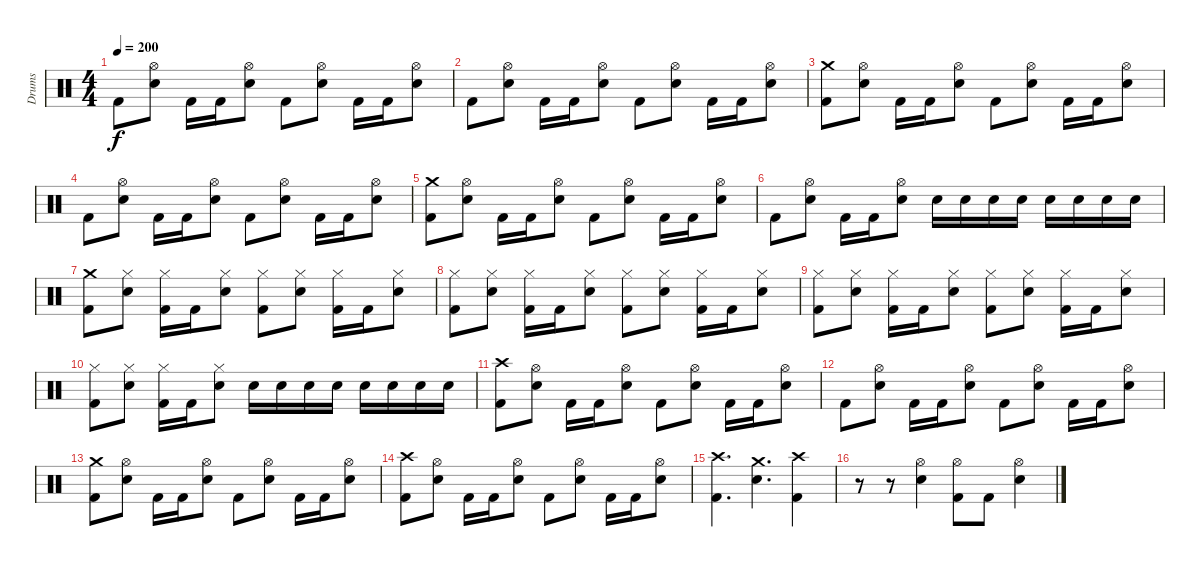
\track ("Drums" "Drums") {instrument percussion}
\staff {score}
\articulation defaults
\ts (4 4)
\tempo 200
\clef neutral
\ks c "Kick (hit) 2".8{dy f}
("Hi-Hat (open)" "Electric Snare (hit)").8 "Kick (hit) 2".16 "Kick (hit) 2".16 ("Hi-Hat (open)" "Electric Snare (hit)").8 "Kick (hit) 2".8 ("Hi-Hat (open)" "Electric Snare (hit)").8 "Kick (hit) 2".16 "Kick (hit) 2".16 ("Hi-Hat (open)" "Electric Snare (hit)").8 |
"Kick (hit) 2".8 ("Hi-Hat (open)" "Electric Snare (hit)").8 "Kick (hit) 2".16 "Kick (hit) 2".16 ("Hi-Hat (open)" "Electric Snare (hit)").8 "Kick (hit) 2".8 ("Hi-Hat (open)" "Electric Snare (hit)").8 "Kick (hit) 2".16 "Kick (hit) 2".16 ("Hi-Hat (open)" "Electric Snare (hit)").8 |
("Crash medium (hit)" "Kick (hit) 2").8 ("Hi-Hat (open)" "Electric Snare (hit)").8 "Kick (hit) 2".16 "Kick (hit) 2".16 ("Hi-Hat (open)" "Electric Snare (hit)").8 "Kick (hit) 2".8 ("Hi-Hat (open)" "Electric Snare (hit)").8 "Kick (hit) 2".16 "Kick (hit) 2".16 ("Hi-Hat (open)" "Electric Snare (hit)").8 |
"Kick (hit) 2".8 ("Hi-Hat (open)" "Electric Snare (hit)").8 "Kick (hit) 2".16 "Kick (hit) 2".16 ("Hi-Hat (open)" "Electric Snare (hit)").8 "Kick (hit) 2".8 ("Hi-Hat (open)" "Electric Snare (hit)").8 "Kick (hit) 2".16 "Kick (hit) 2".16 ("Hi-Hat (open)" "Electric Snare (hit)").8 |
("Crash medium (hit)" "Kick (hit) 2").8 ("Hi-Hat (open)" "Electric Snare (hit)").8 "Kick (hit) 2".16 "Kick (hit) 2".16 ("Hi-Hat (open)" "Electric Snare (hit)").8 "Kick (hit) 2".8 ("Hi-Hat (open)" "Electric Snare (hit)").8 "Kick (hit) 2".16 "Kick (hit) 2".16 ("Hi-Hat (open)" "Electric Snare (hit)").8 |
"Kick (hit) 2".8 ("Hi-Hat (open)" "Electric Snare (hit)").8 "Kick (hit) 2".16 "Kick (hit) 2".16 ("Hi-Hat (open)" "Electric Snare (hit)").8 "Electric Snare (hit)".16 "Electric Snare (hit)".16 "Electric Snare (hit)".16 "Electric Snare (hit)".16 "Electric Snare (hit)".16 "Electric Snare (hit)".16 "Electric Snare (hit)".16 "Electric Snare (hit)".16 |
("Crash medium (hit)" "Kick (hit) 2").8 ("Hi-Hat (closed)" "Electric Snare (hit)").8 ("Hi-Hat (closed)" "Kick (hit) 2").16 "Kick (hit) 2".16 ("Hi-Hat (closed)" "Electric Snare (hit)").8 ("Hi-Hat (closed)" "Kick (hit) 2").8 ("Hi-Hat (closed)" "Electric Snare (hit)").8 ("Hi-Hat (closed)" "Kick (hit) 2").16 "Kick (hit) 2".16 ("Hi-Hat (closed)" "Electric Snare (hit)").8 |
("Hi-Hat (closed)" "Kick (hit) 2").8 ("Hi-Hat (closed)" "Electric Snare (hit)").8 ("Hi-Hat (closed)" "Kick (hit) 2").16 "Kick (hit) 2".16 ("Hi-Hat (closed)" "Electric Snare (hit)").8 ("Hi-Hat (closed)" "Kick (hit) 2").8 ("Hi-Hat (closed)" "Electric Snare (hit)").8 ("Hi-Hat (closed)" "Kick (hit) 2").16 "Kick (hit) 2".16 ("Hi-Hat (closed)" "Electric Snare (hit)").8 |
("Hi-Hat (closed)" "Kick (hit) 2").8 ("Hi-Hat (closed)" "Electric Snare (hit)").8 ("Hi-Hat (closed)" "Kick (hit) 2").16 "Kick (hit) 2".16 ("Hi-Hat (closed)" "Electric Snare (hit)").8 ("Hi-Hat (closed)" "Kick (hit) 2").8 ("Hi-Hat (closed)" "Electric Snare (hit)").8 ("Hi-Hat (closed)" "Kick (hit) 2").16 "Kick (hit) 2".16 ("Hi-Hat (closed)" "Electric Snare (hit)").8 |
("Hi-Hat (closed)" "Kick (hit) 2").8 ("Hi-Hat (closed)" "Electric Snare (hit)").8 ("Hi-Hat (closed)" "Kick (hit) 2").16 "Kick (hit) 2".16 ("Hi-Hat (closed)" "Electric Snare (hit)").8 "Electric Snare (hit)".16 "Electric Snare (hit)".16 "Electric Snare (hit)".16 "Electric Snare (hit)".16 "Electric Snare (hit)".16 "Electric Snare (hit)".16 "Electric Snare (hit)".16 "Electric Snare (hit)".16 |
("Crash high (hit)" "Kick (hit) 2").8 ("Hi-Hat (open)" "Electric Snare (hit)").8 "Kick (hit) 2".16 "Kick (hit) 2".16 ("Hi-Hat (open)" "Electric Snare (hit)").8 "Kick (hit) 2".8 ("Hi-Hat (open)" "Electric Snare (hit)").8 "Kick (hit) 2".16 "Kick (hit) 2".16 ("Hi-Hat (open)" "Electric Snare (hit)").8 |
"Kick (hit) 2".8 ("Hi-Hat (open)" "Electric Snare (hit)").8 "Kick (hit) 2".16 "Kick (hit) 2".16 ("Hi-Hat (open)" "Electric Snare (hit)").8 "Kick (hit) 2".8 ("Hi-Hat (open)" "Electric Snare (hit)").8 "Kick (hit) 2".16 "Kick (hit) 2".16 ("Hi-Hat (open)" "Electric Snare (hit)").8 |
("Crash medium (hit)" "Kick (hit) 2").8 ("Hi-Hat (open)" "Electric Snare (hit)").8 "Kick (hit) 2".16 "Kick (hit) 2".16 ("Hi-Hat (open)" "Electric Snare (hit)").8 "Kick (hit) 2".8 ("Hi-Hat (open)" "Electric Snare (hit)").8 "Kick (hit) 2".16 "Kick (hit) 2".16 ("Hi-Hat (open)" "Electric Snare (hit)").8 |
("Crash high (hit)" "Kick (hit) 2").8 ("Hi-Hat (open)" "Electric Snare (hit)").8 "Kick (hit) 2".16 "Kick (hit) 2".16 ("Hi-Hat (open)" "Electric Snare (hit)").8 "Kick (hit) 2".8 ("Hi-Hat (open)" "Electric Snare (hit)").8 "Kick (hit) 2".16 "Kick (hit) 2".16 ("Hi-Hat (open)" "Electric Snare (hit)").8 |
("Crash high (hit)" "Kick (hit) 2").4{d} ("Crash medium (hit)" "Electric Snare (hit)").4{d} ("Crash high (hit)" "Kick (hit) 2").4 |
r.8 r.8 ("Hi-Hat (open)" "Electric Snare (hit)").4 ("Hi-Hat (open)" "Kick (hit) 2").8 "Kick (hit) 2".8 ("Hi-Hat (open)" "Electric Snare (hit)").4
